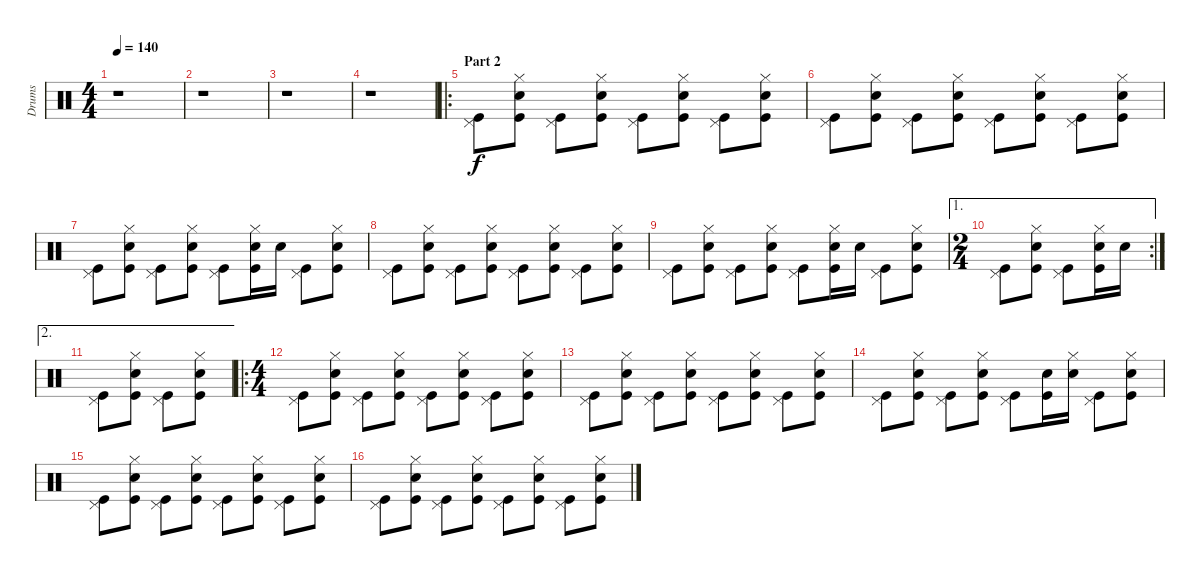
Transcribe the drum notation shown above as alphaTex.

\track ("Drums" "Drums") {instrument percussion}
\staff {score}
\articulation defaults
\ts (4 4)
\tempo 140
\clef neutral
\ks c
r.1{dy f} |
r.1 |
r.1 |
r.1 |
\ro
\section ("" "Part 2")
("Kick (hit)" "Pedal Hi-Hat (hit)").8 ("Kick (hit)" "Snare (hit) 2" "Hi-Hat (closed)").8 ("Kick (hit)" "Pedal Hi-Hat (hit)").8 ("Kick (hit)" "Snare (hit) 2" "Hi-Hat (closed)").8 ("Kick (hit)" "Pedal Hi-Hat (hit)").8 ("Kick (hit)" "Snare (hit) 2" "Hi-Hat (closed)").8 ("Kick (hit)" "Pedal Hi-Hat (hit)").8 ("Kick (hit)" "Snare (hit) 2" "Hi-Hat (closed)").8 |
("Kick (hit)" "Pedal Hi-Hat (hit)").8 ("Kick (hit)" "Snare (hit) 2" "Hi-Hat (closed)").8 ("Kick (hit)" "Pedal Hi-Hat (hit)").8 ("Kick (hit)" "Snare (hit) 2" "Hi-Hat (closed)").8 ("Kick (hit)" "Pedal Hi-Hat (hit)").8 ("Kick (hit)" "Snare (hit) 2" "Hi-Hat (closed)").8 ("Kick (hit)" "Pedal Hi-Hat (hit)").8 ("Kick (hit)" "Snare (hit) 2" "Hi-Hat (closed)").8 |
("Kick (hit)" "Pedal Hi-Hat (hit)").8 ("Kick (hit)" "Snare (hit) 2" "Hi-Hat (closed)").8 ("Kick (hit)" "Pedal Hi-Hat (hit)").8 ("Kick (hit)" "Snare (hit) 2" "Hi-Hat (closed)").8 ("Kick (hit)" "Pedal Hi-Hat (hit)").8 ("Kick (hit)" "Snare (hit) 2" "Hi-Hat (closed)").16 "Snare (hit) 2".16 ("Kick (hit)" "Pedal Hi-Hat (hit)").8 ("Kick (hit)" "Snare (hit) 2" "Hi-Hat (closed)").8 |
("Kick (hit)" "Pedal Hi-Hat (hit)").8 ("Kick (hit)" "Snare (hit) 2" "Hi-Hat (closed)").8 ("Kick (hit)" "Pedal Hi-Hat (hit)").8 ("Kick (hit)" "Snare (hit) 2" "Hi-Hat (closed)").8 ("Kick (hit)" "Pedal Hi-Hat (hit)").8 ("Kick (hit)" "Snare (hit) 2" "Hi-Hat (closed)").8 ("Kick (hit)" "Pedal Hi-Hat (hit)").8 ("Kick (hit)" "Snare (hit) 2" "Hi-Hat (closed)").8 |
("Kick (hit)" "Pedal Hi-Hat (hit)").8 ("Kick (hit)" "Snare (hit) 2" "Hi-Hat (closed)").8 ("Kick (hit)" "Pedal Hi-Hat (hit)").8 ("Kick (hit)" "Snare (hit) 2" "Hi-Hat (closed)").8 ("Kick (hit)" "Pedal Hi-Hat (hit)").8 ("Kick (hit)" "Snare (hit) 2" "Hi-Hat (closed)").16 "Snare (hit) 2".16 ("Kick (hit)" "Pedal Hi-Hat (hit)").8 ("Kick (hit)" "Snare (hit) 2" "Hi-Hat (closed)").8 |
\ae 1
\rc 2
\ts (2 4)
("Kick (hit)" "Pedal Hi-Hat (hit)").8 ("Kick (hit)" "Snare (hit) 2" "Hi-Hat (closed)").8 ("Kick (hit)" "Pedal Hi-Hat (hit)").8 ("Kick (hit)" "Snare (hit) 2" "Hi-Hat (closed)").16 "Snare (hit) 2".16 |
\ae 2
("Kick (hit)" "Pedal Hi-Hat (hit)").8 ("Kick (hit)" "Snare (hit) 2" "Hi-Hat (closed)").8 ("Kick (hit)" "Pedal Hi-Hat (hit)").8 ("Kick (hit)" "Snare (hit) 2" "Hi-Hat (closed)").8 |
\ro
\ts (4 4)
("Kick (hit)" "Pedal Hi-Hat (hit)").8 ("Kick (hit)" "Snare (hit) 2" "Hi-Hat (closed)").8 ("Kick (hit)" "Pedal Hi-Hat (hit)").8 ("Kick (hit)" "Snare (hit) 2" "Hi-Hat (closed)").8 ("Kick (hit)" "Pedal Hi-Hat (hit)").8 ("Kick (hit)" "Snare (hit) 2" "Hi-Hat (closed)").8 ("Kick (hit)" "Pedal Hi-Hat (hit)").8 ("Kick (hit)" "Snare (hit) 2" "Hi-Hat (closed)").8 |
("Kick (hit)" "Pedal Hi-Hat (hit)").8 ("Kick (hit)" "Snare (hit) 2" "Hi-Hat (closed)").8 ("Kick (hit)" "Pedal Hi-Hat (hit)").8 ("Kick (hit)" "Snare (hit) 2" "Hi-Hat (closed)").8 ("Kick (hit)" "Pedal Hi-Hat (hit)").8 ("Kick (hit)" "Snare (hit) 2" "Hi-Hat (closed)").8 ("Kick (hit)" "Pedal Hi-Hat (hit)").8 ("Kick (hit)" "Snare (hit) 2" "Hi-Hat (closed)").8 |
("Kick (hit)" "Pedal Hi-Hat (hit)").8 ("Kick (hit)" "Snare (hit) 2" "Hi-Hat (closed)").8 ("Kick (hit)" "Pedal Hi-Hat (hit)").8 ("Kick (hit)" "Snare (hit) 2" "Hi-Hat (closed)").8 ("Kick (hit)" "Pedal Hi-Hat (hit)").8 ("Kick (hit)" "Snare (hit) 2").16 ("Snare (hit) 2" "Hi-Hat (closed)").16 ("Kick (hit)" "Pedal Hi-Hat (hit)").8 ("Kick (hit)" "Snare (hit) 2" "Hi-Hat (closed)").8 |
("Kick (hit)" "Pedal Hi-Hat (hit)").8 ("Kick (hit)" "Snare (hit) 2" "Hi-Hat (closed)").8 ("Kick (hit)" "Pedal Hi-Hat (hit)").8 ("Kick (hit)" "Snare (hit) 2" "Hi-Hat (closed)").8 ("Kick (hit)" "Pedal Hi-Hat (hit)").8 ("Kick (hit)" "Snare (hit) 2" "Hi-Hat (closed)").8 ("Kick (hit)" "Pedal Hi-Hat (hit)").8 ("Kick (hit)" "Snare (hit) 2" "Hi-Hat (closed)").8 |
("Kick (hit)" "Pedal Hi-Hat (hit)").8 ("Kick (hit)" "Snare (hit) 2" "Hi-Hat (closed)").8 ("Kick (hit)" "Pedal Hi-Hat (hit)").8 ("Kick (hit)" "Snare (hit) 2" "Hi-Hat (closed)").8 ("Kick (hit)" "Pedal Hi-Hat (hit)").8 ("Kick (hit)" "Snare (hit) 2" "Hi-Hat (closed)").8 ("Kick (hit)" "Pedal Hi-Hat (hit)").8 ("Kick (hit)" "Snare (hit) 2" "Hi-Hat (closed)").8
